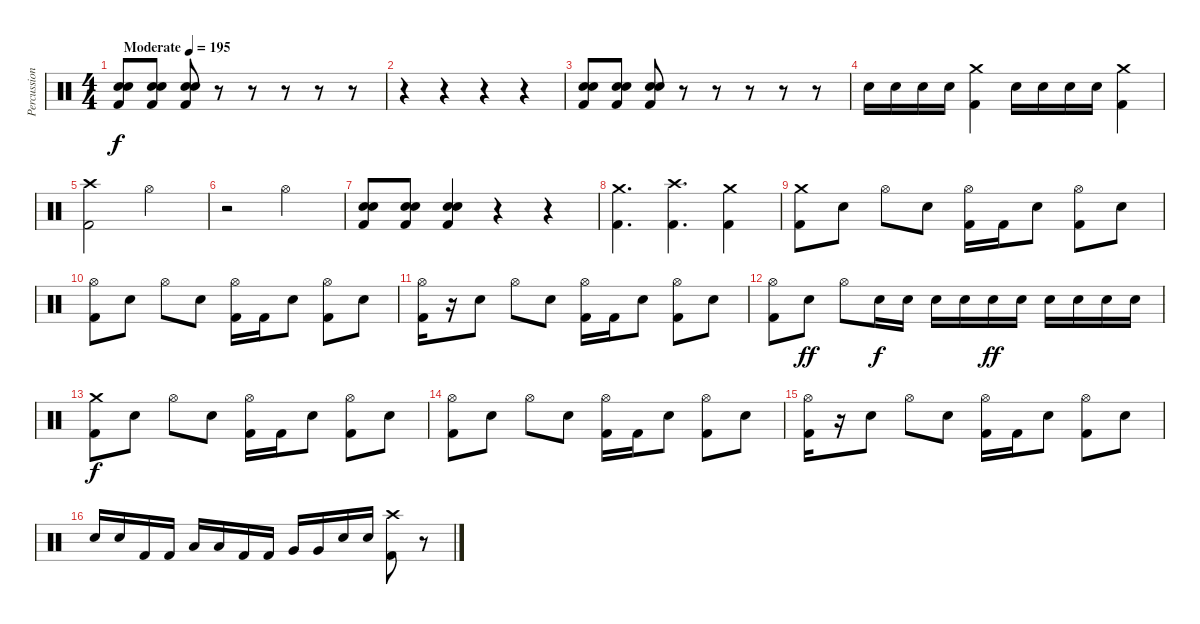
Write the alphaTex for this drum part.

\track ("Percussion" "Percussion") {instrument percussion}
\staff {score}
\articulation defaults
\ts (4 4)
\tempo (195 "Moderate")
\clef neutral
\ks c
("Electric Snare (hit)" "Electric Snare (hit)" "Kick (hit) 2").8{dy f} ("Electric Snare (hit)" "Electric Snare (hit)" "Kick (hit) 2").8 ("Electric Snare (hit)" "Electric Snare (hit)" "Kick (hit) 2").8 r.8 r.8 r.8 r.8 r.8 |
r.4 r.4 r.4 r.4 |
("Electric Snare (hit)" "Electric Snare (hit)" "Kick (hit) 2").8 ("Electric Snare (hit)" "Electric Snare (hit)" "Kick (hit) 2").8 ("Electric Snare (hit)" "Electric Snare (hit)" "Kick (hit) 2").8 r.8 r.8 r.8 r.8 r.8 |
"Electric Snare (hit)".16 "Electric Snare (hit)".16 "Electric Snare (hit)".16 "Electric Snare (hit)".16 ("Crash medium (hit)" "Kick (hit) 2").4 "Electric Snare (hit)".16 "Electric Snare (hit)".16 "Electric Snare (hit)".16 "Electric Snare (hit)".16 ("Crash medium (hit)" "Kick (hit) 2").4 |
("Crash high (hit)" "Kick (hit) 2").2 "Hi-Hat (open)".2 |
r.2 "Hi-Hat (open)".2 |
("Electric Snare (hit)" "Electric Snare (hit)" "Kick (hit) 2").8 ("Electric Snare (hit)" "Electric Snare (hit)" "Kick (hit) 2").8 ("Electric Snare (hit)" "Electric Snare (hit)" "Kick (hit) 2").4 r.4 r.4 |
("Crash medium (hit)" "Kick (hit) 2").4{d} ("Crash high (hit)" "Kick (hit) 2").4{d} ("Crash medium (hit)" "Kick (hit) 2").4 |
("Crash medium (hit)" "Kick (hit) 2").8 "Electric Snare (hit)".8 "Hi-Hat (open)".8 "Electric Snare (hit)".8 ("Hi-Hat (open)" "Kick (hit) 2").16 "Kick (hit) 2".16 "Electric Snare (hit)".8 ("Hi-Hat (open)" "Kick (hit) 2").8 "Electric Snare (hit)".8 |
("Hi-Hat (open)" "Kick (hit) 2").8 "Electric Snare (hit)".8 "Hi-Hat (open)".8 "Electric Snare (hit)".8 ("Hi-Hat (open)" "Kick (hit) 2").16 "Kick (hit) 2".16 "Electric Snare (hit)".8 ("Hi-Hat (open)" "Kick (hit) 2").8 "Electric Snare (hit)".8 |
("Hi-Hat (open)" "Kick (hit) 2").16 r.16 "Electric Snare (hit)".8 "Hi-Hat (open)".8 "Electric Snare (hit)".8 ("Hi-Hat (open)" "Kick (hit) 2").16 "Kick (hit) 2".16 "Electric Snare (hit)".8 ("Hi-Hat (open)" "Kick (hit) 2").8 "Electric Snare (hit)".8 |
("Hi-Hat (open)" "Kick (hit) 2").8 "Electric Snare (hit)".8{dy ff} "Hi-Hat (open)".8 "Electric Snare (hit)".16{dy f} "Electric Snare (hit)".16 "Electric Snare (hit)".16 "Electric Snare (hit)".16 "Electric Snare (hit)".16{dy ff} "Electric Snare (hit)".16 "Electric Snare (hit)".16 "Electric Snare (hit)".16 "Electric Snare (hit)".16 "Electric Snare (hit)".16 |
("Crash medium (hit)" "Kick (hit) 2").8{dy f} "Electric Snare (hit)".8 "Hi-Hat (open)".8 "Electric Snare (hit)".8 ("Hi-Hat (open)" "Kick (hit) 2").16 "Kick (hit) 2".16 "Electric Snare (hit)".8 ("Hi-Hat (open)" "Kick (hit) 2").8 "Electric Snare (hit)".8 |
("Hi-Hat (open)" "Kick (hit) 2").8 "Electric Snare (hit)".8 "Hi-Hat (open)".8 "Electric Snare (hit)".8 ("Hi-Hat (open)" "Kick (hit) 2").16 "Kick (hit) 2".16 "Electric Snare (hit)".8 ("Hi-Hat (open)" "Kick (hit) 2").8 "Electric Snare (hit)".8 |
("Hi-Hat (open)" "Kick (hit) 2").16 r.16 "Electric Snare (hit)".8 "Hi-Hat (open)".8 "Electric Snare (hit)".8 ("Hi-Hat (open)" "Kick (hit) 2").16 "Kick (hit) 2".16 "Electric Snare (hit)".8 ("Hi-Hat (open)" "Kick (hit) 2").8 "Electric Snare (hit)".8 |
"Electric Snare (hit)".16 "Electric Snare (hit)".16 "Kick (hit) 2".16 "Kick (hit) 2".16 "Low Tom (hit)".16 "Low Tom (hit)".16 "Kick (hit) 2".16 "Kick (hit) 2".16 "Very Low Tom (hit)".16 "Very Low Tom (hit)".16 "Electric Snare (hit)".16 "Electric Snare (hit)".16 ("Crash high (hit)" "Kick (hit) 2").8 r.8
